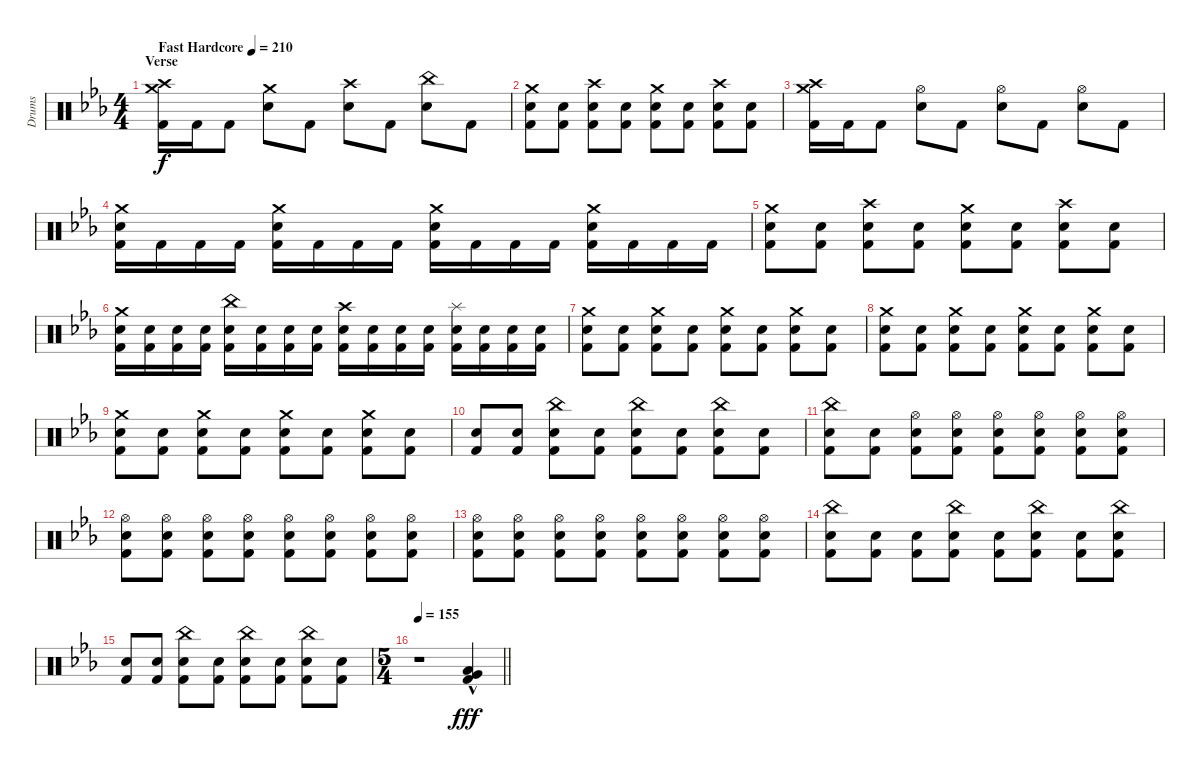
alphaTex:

\track ("Drums" "Drums") {instrument percussion}
\staff {score}
\articulation defaults
\ts (4 4)
\section ("" "Verse")
\tempo (210 "Fast Hardcore")
\clef neutral
\ks cminor
("Crash medium (hit)" "Crash high (hit)" "Kick (hit) 2").16{dy f} "Kick (hit) 2".16 "Kick (hit) 2".8 ("Crash medium (hit)" "Electric Snare (hit)").8 "Kick (hit) 2".8 ("Crash high (hit)" "Electric Snare (hit)").8 "Kick (hit) 2".8 ("China (hit)" "Electric Snare (hit)").8 "Kick (hit) 2".8 |
("Crash medium (hit)" "Electric Snare (hit)" "Kick (hit) 2").8 ("Electric Snare (hit)" "Kick (hit) 2").8 ("Crash high (hit)" "Electric Snare (hit)" "Kick (hit) 2").8 ("Electric Snare (hit)" "Kick (hit) 2").8 ("Crash medium (hit)" "Electric Snare (hit)" "Kick (hit) 2").8 ("Electric Snare (hit)" "Kick (hit) 2").8 ("Crash high (hit)" "Electric Snare (hit)" "Kick (hit) 2").8 ("Electric Snare (hit)" "Kick (hit) 2").8 |
("Crash medium (hit)" "Crash high (hit)" "Kick (hit) 2").16 "Kick (hit) 2".16 "Kick (hit) 2".8 ("Hi-Hat (open)" "Electric Snare (hit)").8 "Kick (hit) 2".8 ("Hi-Hat (open)" "Electric Snare (hit)").8 "Kick (hit) 2".8 ("Hi-Hat (open)" "Electric Snare (hit)").8 "Kick (hit) 2".8 |
("Crash medium (hit)" "Electric Snare (hit)" "Kick (hit) 2").16 "Kick (hit) 2".16 "Kick (hit) 2".16 "Kick (hit) 2".16 ("Crash medium (hit)" "Electric Snare (hit)" "Kick (hit) 2").16 "Kick (hit) 2".16 "Kick (hit) 2".16 "Kick (hit) 2".16 ("Crash medium (hit)" "Electric Snare (hit)" "Kick (hit) 2").16 "Kick (hit) 2".16 "Kick (hit) 2".16 "Kick (hit) 2".16 ("Crash medium (hit)" "Electric Snare (hit)" "Kick (hit) 2").16 "Kick (hit) 2".16 "Kick (hit) 2".16 "Kick (hit) 2".16 |
("Crash medium (hit)" "Electric Snare (hit)" "Kick (hit) 2").8 ("Electric Snare (hit)" "Kick (hit) 2").8 ("Crash high (hit)" "Electric Snare (hit)" "Kick (hit) 2").8 ("Electric Snare (hit)" "Kick (hit) 2").8 ("Crash medium (hit)" "Electric Snare (hit)" "Kick (hit) 2").8 ("Electric Snare (hit)" "Kick (hit) 2").8 ("Crash high (hit)" "Electric Snare (hit)" "Kick (hit) 2").8 ("Electric Snare (hit)" "Kick (hit) 2").8 |
("Crash medium (hit)" "Electric Snare (hit)" "Kick (hit) 2").16 ("Electric Snare (hit)" "Kick (hit) 2").16 ("Electric Snare (hit)" "Kick (hit) 2").16 ("Electric Snare (hit)" "Kick (hit) 2").16 ("China (hit)" "Electric Snare (hit)" "Kick (hit) 2").16 ("Electric Snare (hit)" "Kick (hit) 2").16 ("Electric Snare (hit)" "Kick (hit) 2").16 ("Electric Snare (hit)" "Kick (hit) 2").16 ("Crash high (hit)" "Electric Snare (hit)" "Kick (hit) 2").16 ("Electric Snare (hit)" "Kick (hit) 2").16 ("Electric Snare (hit)" "Kick (hit) 2").16 ("Electric Snare (hit)" "Kick (hit) 2").16 ("Splash (hit)" "Electric Snare (hit)" "Kick (hit) 2").16 ("Electric Snare (hit)" "Kick (hit) 2").16 ("Electric Snare (hit)" "Kick (hit) 2").16 ("Electric Snare (hit)" "Kick (hit) 2").16 |
("Crash medium (hit)" "Electric Snare (hit)" "Kick (hit) 2").8 ("Electric Snare (hit)" "Kick (hit) 2").8 ("Crash medium (hit)" "Electric Snare (hit)" "Kick (hit) 2").8 ("Electric Snare (hit)" "Kick (hit) 2").8 ("Crash medium (hit)" "Electric Snare (hit)" "Kick (hit) 2").8 ("Electric Snare (hit)" "Kick (hit) 2").8 ("Crash medium (hit)" "Electric Snare (hit)" "Kick (hit) 2").8 ("Electric Snare (hit)" "Kick (hit) 2").8 |
("Crash medium (hit)" "Electric Snare (hit)" "Kick (hit) 2").8 ("Electric Snare (hit)" "Kick (hit) 2").8 ("Crash medium (hit)" "Electric Snare (hit)" "Kick (hit) 2").8 ("Electric Snare (hit)" "Kick (hit) 2").8 ("Crash medium (hit)" "Electric Snare (hit)" "Kick (hit) 2").8 ("Electric Snare (hit)" "Kick (hit) 2").8 ("Crash medium (hit)" "Electric Snare (hit)" "Kick (hit) 2").8 ("Electric Snare (hit)" "Kick (hit) 2").8 |
("Crash medium (hit)" "Electric Snare (hit)" "Kick (hit) 2").8 ("Electric Snare (hit)" "Kick (hit) 2").8 ("Crash medium (hit)" "Electric Snare (hit)" "Kick (hit) 2").8 ("Electric Snare (hit)" "Kick (hit) 2").8 ("Crash medium (hit)" "Electric Snare (hit)" "Kick (hit) 2").8 ("Electric Snare (hit)" "Kick (hit) 2").8 ("Crash medium (hit)" "Electric Snare (hit)" "Kick (hit) 2").8 ("Electric Snare (hit)" "Kick (hit) 2").8 |
("Electric Snare (hit)" "Kick (hit) 2").8 ("Electric Snare (hit)" "Kick (hit) 2").8 ("China (hit)" "Electric Snare (hit)" "Kick (hit) 2").8 ("Electric Snare (hit)" "Kick (hit) 2").8 ("China (hit)" "Electric Snare (hit)" "Kick (hit) 2").8 ("Electric Snare (hit)" "Kick (hit) 2").8 ("China (hit)" "Electric Snare (hit)" "Kick (hit) 2").8 ("Electric Snare (hit)" "Kick (hit) 2").8 |
("China (hit)" "Electric Snare (hit)" "Kick (hit) 2").8 ("Electric Snare (hit)" "Kick (hit) 2").8 ("Hi-Hat (open)" "Electric Snare (hit)" "Kick (hit) 2").8 ("Hi-Hat (open)" "Electric Snare (hit)" "Kick (hit) 2").8 ("Hi-Hat (open)" "Electric Snare (hit)" "Kick (hit) 2").8 ("Hi-Hat (open)" "Electric Snare (hit)" "Kick (hit) 2").8 ("Hi-Hat (open)" "Electric Snare (hit)" "Kick (hit) 2").8 ("Hi-Hat (open)" "Electric Snare (hit)" "Kick (hit) 2").8 |
("Hi-Hat (open)" "Electric Snare (hit)" "Kick (hit) 2").8 ("Hi-Hat (open)" "Electric Snare (hit)" "Kick (hit) 2").8 ("Hi-Hat (open)" "Electric Snare (hit)" "Kick (hit) 2").8 ("Hi-Hat (open)" "Electric Snare (hit)" "Kick (hit) 2").8 ("Hi-Hat (open)" "Electric Snare (hit)" "Kick (hit) 2").8 ("Hi-Hat (open)" "Electric Snare (hit)" "Kick (hit) 2").8 ("Hi-Hat (open)" "Electric Snare (hit)" "Kick (hit) 2").8 ("Hi-Hat (open)" "Electric Snare (hit)" "Kick (hit) 2").8 |
("Hi-Hat (open)" "Electric Snare (hit)" "Kick (hit) 2").8 ("Hi-Hat (open)" "Electric Snare (hit)" "Kick (hit) 2").8 ("Hi-Hat (open)" "Electric Snare (hit)" "Kick (hit) 2").8 ("Hi-Hat (open)" "Electric Snare (hit)" "Kick (hit) 2").8 ("Hi-Hat (open)" "Electric Snare (hit)" "Kick (hit) 2").8 ("Hi-Hat (open)" "Electric Snare (hit)" "Kick (hit) 2").8 ("Hi-Hat (open)" "Electric Snare (hit)" "Kick (hit) 2").8 ("Hi-Hat (open)" "Electric Snare (hit)" "Kick (hit) 2").8 |
("China (hit)" "Electric Snare (hit)" "Kick (hit) 2").8 ("Electric Snare (hit)" "Kick (hit) 2").8 ("Electric Snare (hit)" "Kick (hit) 2").8 ("China (hit)" "Electric Snare (hit)" "Kick (hit) 2").8 ("Electric Snare (hit)" "Kick (hit) 2").8 ("China (hit)" "Electric Snare (hit)" "Kick (hit) 2").8 ("Electric Snare (hit)" "Kick (hit) 2").8 ("China (hit)" "Electric Snare (hit)" "Kick (hit) 2").8 |
("Electric Snare (hit)" "Kick (hit) 2").8 ("Electric Snare (hit)" "Kick (hit) 2").8 ("China (hit)" "Electric Snare (hit)" "Kick (hit) 2").8 ("Electric Snare (hit)" "Kick (hit) 2").8 ("China (hit)" "Electric Snare (hit)" "Kick (hit) 2").8 ("Electric Snare (hit)" "Kick (hit) 2").8 ("China (hit)" "Electric Snare (hit)" "Kick (hit) 2").8 ("Electric Snare (hit)" "Kick (hit) 2").8 |
\ts (5 4)
\tempo 155
\barLineRight lightlight
r.1 ("Very Low Tom (hit)"{hac} "Low Floor Tom (hit)"{hac} "Kick (hit) 2"{hac}).4{dy fff}
